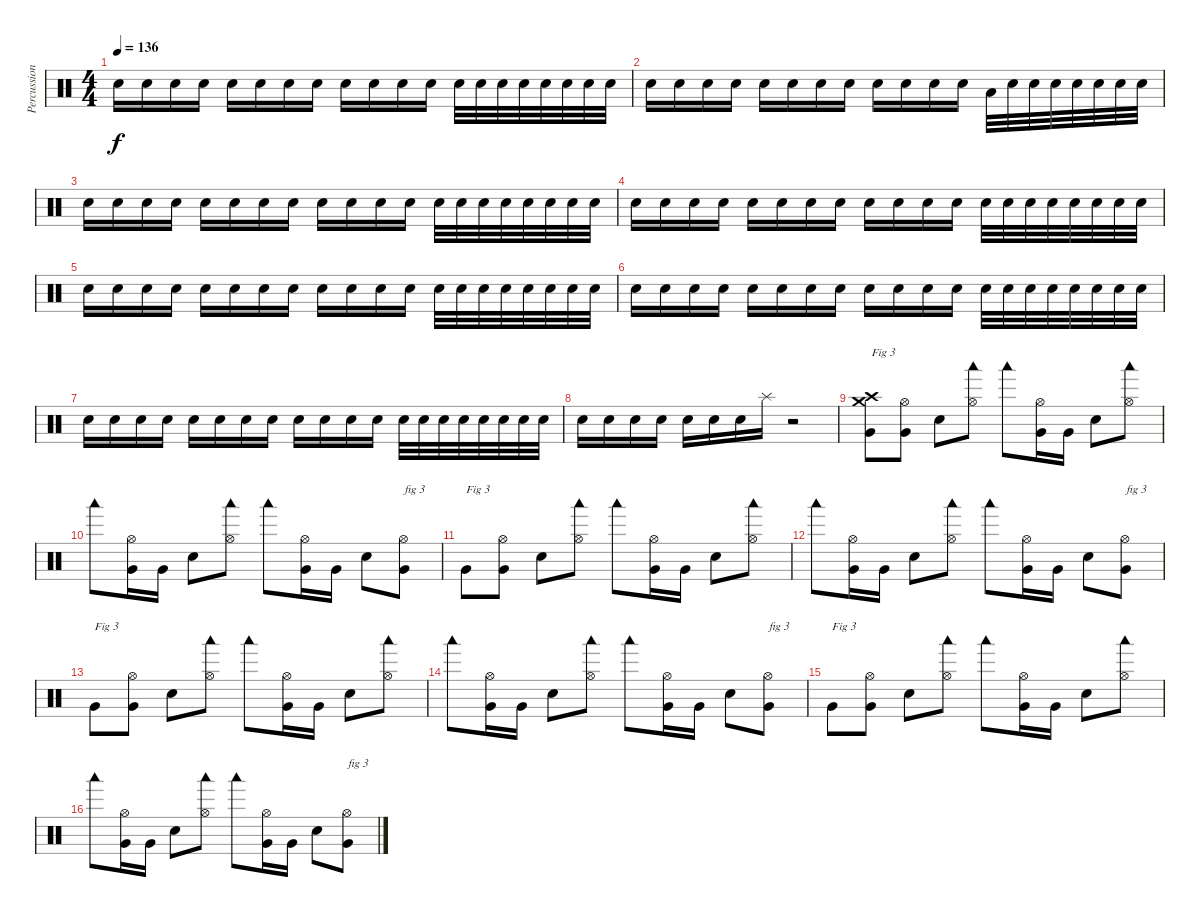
\track ("Percussions" "Percussion") {instrument percussion}
\staff {score}
\articulation defaults
\ts (4 4)
\tempo 136
\clef neutral
\ks c "Snare (hit) 2".16{dy f volume 16} "Snare (hit) 2".16{volume 9} "Snare (hit) 2".16 "Snare (hit) 2".16{volume 16} "Snare (hit) 2".16{volume 9} "Snare (hit) 2".16 "Snare (hit) 2".16{volume 16} "Snare (hit) 2".16{volume 9} "Snare (hit) 2".16 "Snare (hit) 2".16 "Snare (hit) 2".16{volume 16} "Snare (hit) 2".16{volume 9} "Snare (hit) 2".32{volume 16} "Snare (hit) 2".32{volume 9} "Snare (hit) 2".32 "Snare (hit) 2".32 "Snare (hit) 2".32 "Snare (hit) 2".32 "Snare (hit) 2".32 "Snare (hit) 2".32
|
"Snare (hit) 2".16{volume 16} "Snare (hit) 2".16{volume 9} "Snare (hit) 2".16 "Snare (hit) 2".16{volume 16} "Snare (hit) 2".16{volume 9} "Snare (hit) 2".16 "Snare (hit) 2".16{volume 16} "Snare (hit) 2".16{volume 9} "Snare (hit) 2".16 "Snare (hit) 2".16 "Snare (hit) 2".16{volume 16} "Snare (hit) 2".16{volume 9} "Low Tom (hit)".32{volume 16} "Snare (hit) 2".32{volume 9} "Snare (hit) 2".32 "Snare (hit) 2".32 "Snare (hit) 2".32 "Snare (hit) 2".32 "Snare (hit) 2".32 "Snare (hit) 2".32 |
"Snare (hit) 2".16{volume 16} "Snare (hit) 2".16{volume 9} "Snare (hit) 2".16 "Snare (hit) 2".16{volume 16} "Snare (hit) 2".16{volume 9} "Snare (hit) 2".16 "Snare (hit) 2".16{volume 16} "Snare (hit) 2".16{volume 9} "Snare (hit) 2".16 "Snare (hit) 2".16 "Snare (hit) 2".16{volume 16} "Snare (hit) 2".16{volume 9} "Snare (hit) 2".32{volume 16} "Snare (hit) 2".32{volume 9} "Snare (hit) 2".32 "Snare (hit) 2".32 "Snare (hit) 2".32 "Snare (hit) 2".32 "Snare (hit) 2".32 "Snare (hit) 2".32 |
"Snare (hit) 2".16{volume 16} "Snare (hit) 2".16{volume 9} "Snare (hit) 2".16 "Snare (hit) 2".16{volume 16} "Snare (hit) 2".16{volume 9} "Snare (hit) 2".16 "Snare (hit) 2".16{volume 16} "Snare (hit) 2".16{volume 9} "Snare (hit) 2".16 "Snare (hit) 2".16 "Snare (hit) 2".16{volume 16} "Snare (hit) 2".16{volume 9} "Snare (hit) 2".32{volume 16} "Snare (hit) 2".32{volume 9} "Snare (hit) 2".32 "Snare (hit) 2".32 "Snare (hit) 2".32 "Snare (hit) 2".32 "Snare (hit) 2".32 "Snare (hit) 2".32 |
"Snare (hit) 2".16{volume 16} "Snare (hit) 2".16{volume 9} "Snare (hit) 2".16 "Snare (hit) 2".16{volume 16} "Snare (hit) 2".16{volume 9} "Snare (hit) 2".16 "Snare (hit) 2".16{volume 16} "Snare (hit) 2".16{volume 9} "Snare (hit) 2".16 "Snare (hit) 2".16 "Snare (hit) 2".16{volume 16} "Snare (hit) 2".16{volume 9} "Snare (hit) 2".32{volume 16} "Snare (hit) 2".32{volume 9} "Snare (hit) 2".32 "Snare (hit) 2".32 "Snare (hit) 2".32 "Snare (hit) 2".32 "Snare (hit) 2".32 "Snare (hit) 2".32 |
"Snare (hit) 2".16{volume 16} "Snare (hit) 2".16{volume 9} "Snare (hit) 2".16 "Snare (hit) 2".16{volume 16} "Snare (hit) 2".16{volume 9} "Snare (hit) 2".16 "Snare (hit) 2".16{volume 16} "Snare (hit) 2".16{volume 9} "Snare (hit) 2".16 "Snare (hit) 2".16 "Snare (hit) 2".16{volume 16} "Snare (hit) 2".16{volume 9} "Snare (hit) 2".32{volume 16} "Snare (hit) 2".32{volume 9} "Snare (hit) 2".32 "Snare (hit) 2".32 "Snare (hit) 2".32 "Snare (hit) 2".32 "Snare (hit) 2".32 "Snare (hit) 2".32 |
"Snare (hit) 2".16{volume 16} "Snare (hit) 2".16{volume 9} "Snare (hit) 2".16 "Snare (hit) 2".16{volume 16} "Snare (hit) 2".16{volume 9} "Snare (hit) 2".16 "Snare (hit) 2".16{volume 16} "Snare (hit) 2".16{volume 9} "Snare (hit) 2".16 "Snare (hit) 2".16 "Snare (hit) 2".16{volume 16} "Snare (hit) 2".16{volume 9} "Snare (hit) 2".32{volume 16} "Snare (hit) 2".32{volume 9} "Snare (hit) 2".32 "Snare (hit) 2".32 "Snare (hit) 2".32 "Snare (hit) 2".32 "Snare (hit) 2".32 "Snare (hit) 2".32 |
"Snare (hit) 2".16{volume 16} "Snare (hit) 2".16 "Snare (hit) 2".16 "Snare (hit) 2".16 "Snare (hit) 2".16 "Snare (hit) 2".16 "Snare (hit) 2".16 "Splash (hit)".16 r.2 |
("Very Low Tom (hit)" "Crash medium (hit)" "Crash high (hit)").8{txt "Fig 3"} ("Very Low Tom (hit)" "Hi-Hat (open)").8 "Snare (hit) 2".8 ("Woodblock low (hit)" "Hi-Hat (open)").8 "Woodblock low (hit)".8 ("Very Low Tom (hit)" "Hi-Hat (open)").16 "Very Low Tom (hit)".16 "Snare (hit) 2".8 ("Woodblock low (hit)" "Hi-Hat (open)").8 |
"Woodblock low (hit)".8 ("Very Low Tom (hit)" "Hi-Hat (open)").16 "Very Low Tom (hit)".16 "Snare (hit) 2".8 ("Woodblock low (hit)" "Hi-Hat (open)").8 "Woodblock low (hit)".8 ("Very Low Tom (hit)" "Hi-Hat (open)").16 "Very Low Tom (hit)".16 "Snare (hit) 2".8 ("Very Low Tom (hit)" "Hi-Hat (open)").8{txt "fig 3"} |
"Very Low Tom (hit)".8{txt "Fig 3"} ("Very Low Tom (hit)" "Hi-Hat (open)").8 "Snare (hit) 2".8 ("Woodblock low (hit)" "Hi-Hat (open)").8 "Woodblock low (hit)".8 ("Very Low Tom (hit)" "Hi-Hat (open)").16 "Very Low Tom (hit)".16 "Snare (hit) 2".8 ("Woodblock low (hit)" "Hi-Hat (open)").8 |
"Woodblock low (hit)".8 ("Very Low Tom (hit)" "Hi-Hat (open)").16 "Very Low Tom (hit)".16 "Snare (hit) 2".8 ("Woodblock low (hit)" "Hi-Hat (open)").8 "Woodblock low (hit)".8 ("Very Low Tom (hit)" "Hi-Hat (open)").16 "Very Low Tom (hit)".16 "Snare (hit) 2".8 ("Very Low Tom (hit)" "Hi-Hat (open)").8{txt "fig 3"} |
"Very Low Tom (hit)".8{txt "Fig 3"} ("Very Low Tom (hit)" "Hi-Hat (open)").8 "Snare (hit) 2".8 ("Woodblock low (hit)" "Hi-Hat (open)").8 "Woodblock low (hit)".8 ("Very Low Tom (hit)" "Hi-Hat (open)").16 "Very Low Tom (hit)".16 "Snare (hit) 2".8 ("Woodblock low (hit)" "Hi-Hat (open)").8 |
"Woodblock low (hit)".8 ("Very Low Tom (hit)" "Hi-Hat (open)").16 "Very Low Tom (hit)".16 "Snare (hit) 2".8 ("Woodblock low (hit)" "Hi-Hat (open)").8 "Woodblock low (hit)".8 ("Very Low Tom (hit)" "Hi-Hat (open)").16 "Very Low Tom (hit)".16 "Snare (hit) 2".8 ("Very Low Tom (hit)" "Hi-Hat (open)").8{txt "fig 3"} |
"Very Low Tom (hit)".8{txt "Fig 3"} ("Very Low Tom (hit)" "Hi-Hat (open)").8 "Snare (hit) 2".8 ("Woodblock low (hit)" "Hi-Hat (open)").8 "Woodblock low (hit)".8 ("Very Low Tom (hit)" "Hi-Hat (open)").16 "Very Low Tom (hit)".16 "Snare (hit) 2".8 ("Woodblock low (hit)" "Hi-Hat (open)").8 |
"Woodblock low (hit)".8 ("Very Low Tom (hit)" "Hi-Hat (open)").16 "Very Low Tom (hit)".16 "Snare (hit) 2".8 ("Woodblock low (hit)" "Hi-Hat (open)").8 "Woodblock low (hit)".8 ("Very Low Tom (hit)" "Hi-Hat (open)").16 "Very Low Tom (hit)".16 "Snare (hit) 2".8 ("Very Low Tom (hit)" "Hi-Hat (open)").8{txt "fig 3"}
